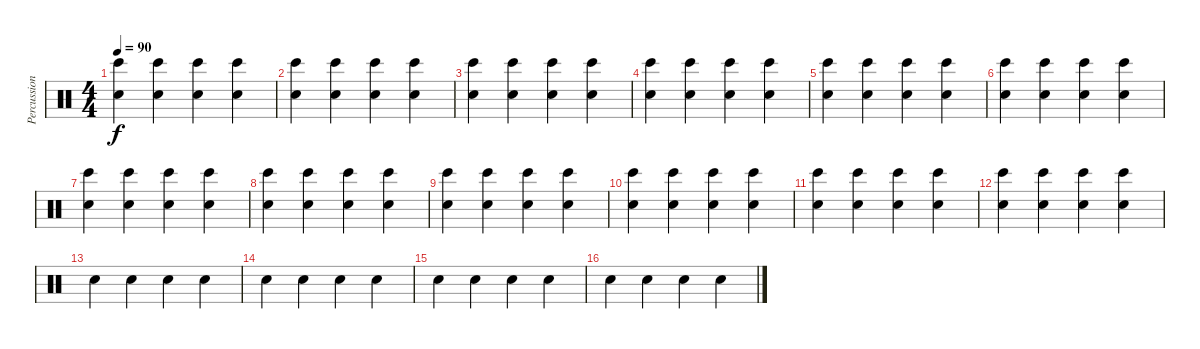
\track ("Percussion" "Percussion") {instrument percussion}
\staff {score}
\articulation defaults
\ts (4 4)
\tempo 90
\clef neutral
\ks c
("Bongo High (hit)" "Hand Clap (hit)").4{dy f} ("Bongo High (hit)" "Hand Clap (hit)").4 ("Hand Clap (hit)" "Bongo High (hit)").4 ("Hand Clap (hit)" "Bongo High (hit)").4 |
("Hand Clap (hit)" "Bongo High (hit)").4 ("Bongo High (hit)" "Hand Clap (hit)").4 ("Hand Clap (hit)" "Bongo High (hit)").4 ("Hand Clap (hit)" "Bongo High (hit)").4 |
("Hand Clap (hit)" "Bongo High (hit)").4 ("Hand Clap (hit)" "Bongo High (hit)").4 ("Hand Clap (hit)" "Bongo High (hit)").4 ("Hand Clap (hit)" "Bongo High (hit)").4 |
("Hand Clap (hit)" "Bongo High (hit)").4 ("Hand Clap (hit)" "Bongo High (hit)").4 ("Hand Clap (hit)" "Bongo High (hit)").4 ("Hand Clap (hit)" "Bongo High (hit)").4 |
("Hand Clap (hit)" "Bongo High (hit)").4 ("Hand Clap (hit)" "Bongo High (hit)").4 ("Hand Clap (hit)" "Bongo High (hit)").4 ("Hand Clap (hit)" "Bongo High (hit)").4 |
("Hand Clap (hit)" "Bongo High (hit)").4 ("Hand Clap (hit)" "Bongo High (hit)").4 ("Hand Clap (hit)" "Bongo High (hit)").4 ("Hand Clap (hit)" "Bongo High (hit)").4 |
("Hand Clap (hit)" "Bongo High (hit)").4 ("Hand Clap (hit)" "Bongo High (hit)").4 ("Hand Clap (hit)" "Bongo High (hit)").4 ("Hand Clap (hit)" "Bongo High (hit)").4 |
("Hand Clap (hit)" "Bongo High (hit)").4 ("Hand Clap (hit)" "Bongo High (hit)").4 ("Hand Clap (hit)" "Bongo High (hit)").4 ("Hand Clap (hit)" "Bongo High (hit)").4 |
("Hand Clap (hit)" "Bongo High (hit)").4 ("Hand Clap (hit)" "Bongo High (hit)").4 ("Hand Clap (hit)" "Bongo High (hit)").4 ("Hand Clap (hit)" "Bongo High (hit)").4 |
("Hand Clap (hit)" "Bongo High (hit)").4 ("Hand Clap (hit)" "Bongo High (hit)").4 ("Hand Clap (hit)" "Bongo High (hit)").4 ("Hand Clap (hit)" "Bongo High (hit)").4 |
("Hand Clap (hit)" "Bongo High (hit)").4 ("Hand Clap (hit)" "Bongo High (hit)").4 ("Hand Clap (hit)" "Bongo High (hit)").4 ("Hand Clap (hit)" "Bongo High (hit)").4 |
("Hand Clap (hit)" "Bongo High (hit)").4 ("Hand Clap (hit)" "Bongo High (hit)").4 ("Hand Clap (hit)" "Bongo High (hit)").4 ("Hand Clap (hit)" "Bongo High (hit)").4 |
"Hand Clap (hit)".4 "Hand Clap (hit)".4 "Hand Clap (hit)".4 "Hand Clap (hit)".4 |
"Hand Clap (hit)".4 "Hand Clap (hit)".4 "Hand Clap (hit)".4 "Hand Clap (hit)".4 |
"Hand Clap (hit)".4 "Hand Clap (hit)".4 "Hand Clap (hit)".4 "Hand Clap (hit)".4 |
"Hand Clap (hit)".4 "Hand Clap (hit)".4 "Hand Clap (hit)".4 "Hand Clap (hit)".4
